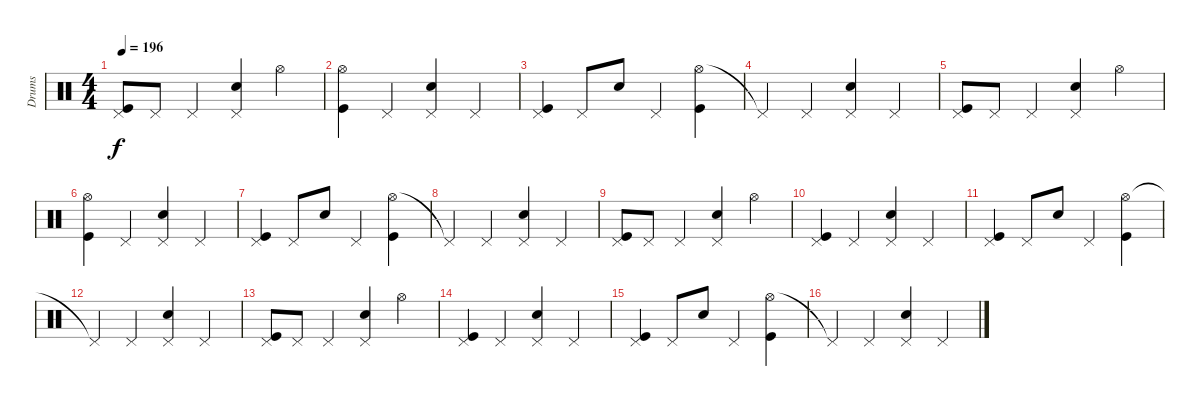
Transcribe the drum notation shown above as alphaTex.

\track ("Drums" "Drums") {instrument percussion}
\staff {score}
\articulation defaults
\ts (4 4)
\tempo 196
\clef neutral
\ks c
("Pedal Hi-Hat (hit)" "Kick (hit)").8{dy f} "Pedal Hi-Hat (hit)".8 "Pedal Hi-Hat (hit)".4 ("Pedal Hi-Hat (hit)" "Electric Snare (hit)").4 "Hi-Hat (open)".4 |
("Hi-Hat (open)" "Kick (hit)").4 "Pedal Hi-Hat (hit)".4 ("Pedal Hi-Hat (hit)" "Electric Snare (hit)").4 "Pedal Hi-Hat (hit)".4 |
("Pedal Hi-Hat (hit)" "Kick (hit)").4 "Pedal Hi-Hat (hit)".8 "Electric Snare (hit)".8 "Pedal Hi-Hat (hit)".4 ("Hi-Hat (open)" "Kick (hit)").4 |
"Pedal Hi-Hat (hit)"{t}.4 "Pedal Hi-Hat (hit)".4 ("Pedal Hi-Hat (hit)" "Electric Snare (hit)").4 "Pedal Hi-Hat (hit)".4 |
("Pedal Hi-Hat (hit)" "Kick (hit)").8 "Pedal Hi-Hat (hit)".8 "Pedal Hi-Hat (hit)".4 ("Pedal Hi-Hat (hit)" "Electric Snare (hit)").4 "Hi-Hat (open)".4 |
("Hi-Hat (open)" "Kick (hit)").4 "Pedal Hi-Hat (hit)".4 ("Pedal Hi-Hat (hit)" "Electric Snare (hit)").4 "Pedal Hi-Hat (hit)".4 |
("Pedal Hi-Hat (hit)" "Kick (hit)").4 "Pedal Hi-Hat (hit)".8 "Electric Snare (hit)".8 "Pedal Hi-Hat (hit)".4 ("Hi-Hat (open)" "Kick (hit)").4 |
"Pedal Hi-Hat (hit)"{t}.4 "Pedal Hi-Hat (hit)".4 ("Pedal Hi-Hat (hit)" "Electric Snare (hit)").4 "Pedal Hi-Hat (hit)".4 |
("Pedal Hi-Hat (hit)" "Kick (hit)").8 "Pedal Hi-Hat (hit)".8 "Pedal Hi-Hat (hit)".4 ("Pedal Hi-Hat (hit)" "Electric Snare (hit)").4 "Hi-Hat (open)".4 |
("Pedal Hi-Hat (hit)" "Kick (hit)").4 "Pedal Hi-Hat (hit)".4 ("Pedal Hi-Hat (hit)" "Electric Snare (hit)").4 "Pedal Hi-Hat (hit)".4 |
("Pedal Hi-Hat (hit)" "Kick (hit)").4 "Pedal Hi-Hat (hit)".8 "Electric Snare (hit)".8 "Pedal Hi-Hat (hit)".4 ("Hi-Hat (open)" "Kick (hit)").4 |
"Pedal Hi-Hat (hit)"{t}.4 "Pedal Hi-Hat (hit)".4 ("Pedal Hi-Hat (hit)" "Electric Snare (hit)").4 "Pedal Hi-Hat (hit)".4 |
("Pedal Hi-Hat (hit)" "Kick (hit)").8 "Pedal Hi-Hat (hit)".8 "Pedal Hi-Hat (hit)".4 ("Pedal Hi-Hat (hit)" "Electric Snare (hit)").4 "Hi-Hat (open)".4 |
("Pedal Hi-Hat (hit)" "Kick (hit)").4 "Pedal Hi-Hat (hit)".4 ("Pedal Hi-Hat (hit)" "Electric Snare (hit)").4 "Pedal Hi-Hat (hit)".4 |
("Pedal Hi-Hat (hit)" "Kick (hit)").4 "Pedal Hi-Hat (hit)".8 "Electric Snare (hit)".8 "Pedal Hi-Hat (hit)".4 ("Hi-Hat (open)" "Kick (hit)").4 |
"Pedal Hi-Hat (hit)"{t}.4 "Pedal Hi-Hat (hit)".4 ("Pedal Hi-Hat (hit)" "Electric Snare (hit)").4 "Pedal Hi-Hat (hit)".4
